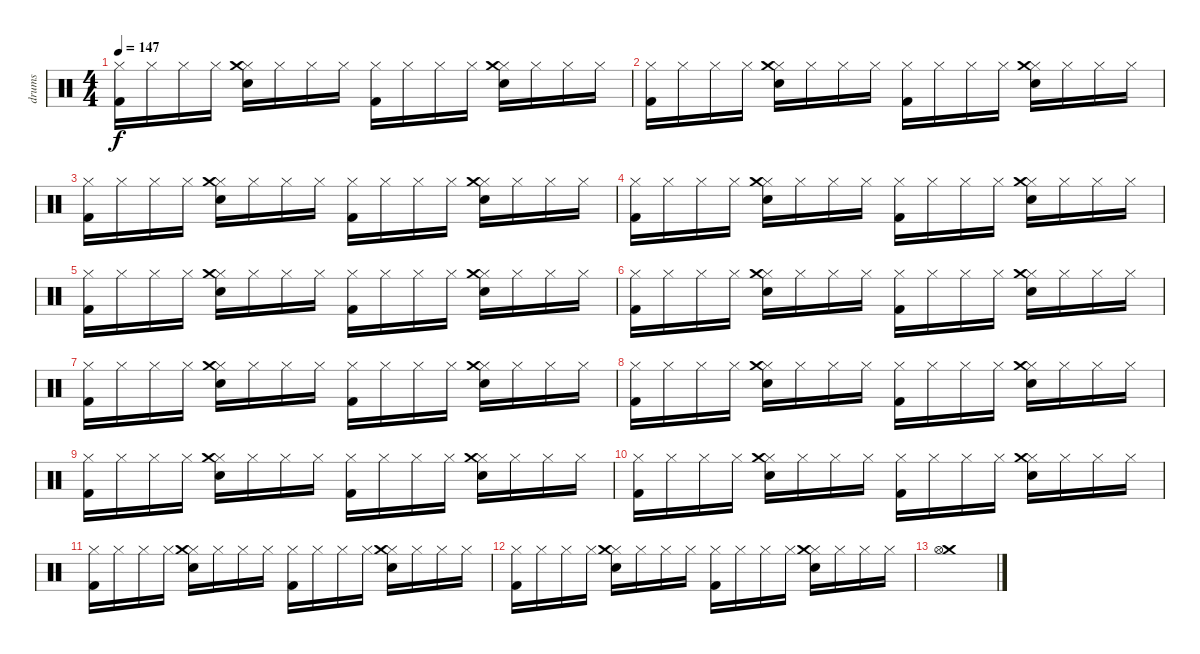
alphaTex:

\track ("drums" "drums") {instrument percussion}
\staff {score}
\articulation defaults
\ts (4 4)
\tempo 147
\clef neutral
\ks c
("Hi-Hat (closed)" "Kick (hit) 2").16{dy f} "Hi-Hat (closed)".16 "Hi-Hat (closed)".16 "Hi-Hat (closed)".16 ("Hi-Hat (closed)" "Snare (hit) 2" "Crash medium (hit)").16 "Hi-Hat (closed)".16 "Hi-Hat (closed)".16 "Hi-Hat (closed)".16 ("Hi-Hat (closed)" "Kick (hit) 2").16 "Hi-Hat (closed)".16 "Hi-Hat (closed)".16 "Hi-Hat (closed)".16 ("Hi-Hat (closed)" "Snare (hit) 2" "Crash medium (hit)").16 "Hi-Hat (closed)".16 "Hi-Hat (closed)".16 "Hi-Hat (closed)".16 |
("Hi-Hat (closed)" "Kick (hit) 2").16 "Hi-Hat (closed)".16 "Hi-Hat (closed)".16 "Hi-Hat (closed)".16 ("Hi-Hat (closed)" "Snare (hit) 2" "Crash medium (hit)").16 "Hi-Hat (closed)".16 "Hi-Hat (closed)".16 "Hi-Hat (closed)".16 ("Hi-Hat (closed)" "Kick (hit) 2").16 "Hi-Hat (closed)".16 "Hi-Hat (closed)".16 "Hi-Hat (closed)".16 ("Hi-Hat (closed)" "Snare (hit) 2" "Crash medium (hit)").16 "Hi-Hat (closed)".16 "Hi-Hat (closed)".16 "Hi-Hat (closed)".16 |
("Hi-Hat (closed)" "Kick (hit) 2").16 "Hi-Hat (closed)".16 "Hi-Hat (closed)".16 "Hi-Hat (closed)".16 ("Hi-Hat (closed)" "Snare (hit) 2" "Crash medium (hit)").16 "Hi-Hat (closed)".16 "Hi-Hat (closed)".16 "Hi-Hat (closed)".16 ("Hi-Hat (closed)" "Kick (hit) 2").16 "Hi-Hat (closed)".16 "Hi-Hat (closed)".16 "Hi-Hat (closed)".16 ("Hi-Hat (closed)" "Snare (hit) 2" "Crash medium (hit)").16 "Hi-Hat (closed)".16 "Hi-Hat (closed)".16 "Hi-Hat (closed)".16 |
("Hi-Hat (closed)" "Kick (hit) 2").16 "Hi-Hat (closed)".16 "Hi-Hat (closed)".16 "Hi-Hat (closed)".16 ("Hi-Hat (closed)" "Snare (hit) 2" "Crash medium (hit)").16 "Hi-Hat (closed)".16 "Hi-Hat (closed)".16 "Hi-Hat (closed)".16 ("Hi-Hat (closed)" "Kick (hit) 2").16 "Hi-Hat (closed)".16 "Hi-Hat (closed)".16 "Hi-Hat (closed)".16 ("Hi-Hat (closed)" "Snare (hit) 2" "Crash medium (hit)").16 "Hi-Hat (closed)".16 "Hi-Hat (closed)".16 "Hi-Hat (closed)".16 |
("Hi-Hat (closed)" "Kick (hit) 2").16 "Hi-Hat (closed)".16 "Hi-Hat (closed)".16 "Hi-Hat (closed)".16 ("Hi-Hat (closed)" "Snare (hit) 2" "Crash medium (hit)").16 "Hi-Hat (closed)".16 "Hi-Hat (closed)".16 "Hi-Hat (closed)".16 ("Hi-Hat (closed)" "Kick (hit) 2").16 "Hi-Hat (closed)".16 "Hi-Hat (closed)".16 "Hi-Hat (closed)".16 ("Hi-Hat (closed)" "Snare (hit) 2" "Crash medium (hit)").16 "Hi-Hat (closed)".16 "Hi-Hat (closed)".16 "Hi-Hat (closed)".16 |
("Hi-Hat (closed)" "Kick (hit) 2").16 "Hi-Hat (closed)".16 "Hi-Hat (closed)".16 "Hi-Hat (closed)".16 ("Hi-Hat (closed)" "Snare (hit) 2" "Crash medium (hit)").16 "Hi-Hat (closed)".16 "Hi-Hat (closed)".16 "Hi-Hat (closed)".16 ("Hi-Hat (closed)" "Kick (hit) 2").16 "Hi-Hat (closed)".16 "Hi-Hat (closed)".16 "Hi-Hat (closed)".16 ("Hi-Hat (closed)" "Snare (hit) 2" "Crash medium (hit)").16 "Hi-Hat (closed)".16 "Hi-Hat (closed)".16 "Hi-Hat (closed)".16 |
("Hi-Hat (closed)" "Kick (hit) 2").16 "Hi-Hat (closed)".16 "Hi-Hat (closed)".16 "Hi-Hat (closed)".16 ("Hi-Hat (closed)" "Snare (hit) 2" "Crash medium (hit)").16 "Hi-Hat (closed)".16 "Hi-Hat (closed)".16 "Hi-Hat (closed)".16 ("Hi-Hat (closed)" "Kick (hit) 2").16 "Hi-Hat (closed)".16 "Hi-Hat (closed)".16 "Hi-Hat (closed)".16 ("Hi-Hat (closed)" "Snare (hit) 2" "Crash medium (hit)").16 "Hi-Hat (closed)".16 "Hi-Hat (closed)".16 "Hi-Hat (closed)".16 |
("Hi-Hat (closed)" "Kick (hit) 2").16 "Hi-Hat (closed)".16 "Hi-Hat (closed)".16 "Hi-Hat (closed)".16 ("Hi-Hat (closed)" "Snare (hit) 2" "Crash medium (hit)").16 "Hi-Hat (closed)".16 "Hi-Hat (closed)".16 "Hi-Hat (closed)".16 ("Hi-Hat (closed)" "Kick (hit) 2").16 "Hi-Hat (closed)".16 "Hi-Hat (closed)".16 "Hi-Hat (closed)".16 ("Hi-Hat (closed)" "Snare (hit) 2" "Crash medium (hit)").16 "Hi-Hat (closed)".16 "Hi-Hat (closed)".16 "Hi-Hat (closed)".16 |
("Hi-Hat (closed)" "Kick (hit) 2").16 "Hi-Hat (closed)".16 "Hi-Hat (closed)".16 "Hi-Hat (closed)".16 ("Hi-Hat (closed)" "Snare (hit) 2" "Crash medium (hit)").16 "Hi-Hat (closed)".16 "Hi-Hat (closed)".16 "Hi-Hat (closed)".16 ("Hi-Hat (closed)" "Kick (hit) 2").16 "Hi-Hat (closed)".16 "Hi-Hat (closed)".16 "Hi-Hat (closed)".16 ("Hi-Hat (closed)" "Snare (hit) 2" "Crash medium (hit)").16 "Hi-Hat (closed)".16 "Hi-Hat (closed)".16 "Hi-Hat (closed)".16 |
("Hi-Hat (closed)" "Kick (hit) 2").16 "Hi-Hat (closed)".16 "Hi-Hat (closed)".16 "Hi-Hat (closed)".16 ("Hi-Hat (closed)" "Snare (hit) 2" "Crash medium (hit)").16 "Hi-Hat (closed)".16 "Hi-Hat (closed)".16 "Hi-Hat (closed)".16 ("Hi-Hat (closed)" "Kick (hit) 2").16 "Hi-Hat (closed)".16 "Hi-Hat (closed)".16 "Hi-Hat (closed)".16 ("Hi-Hat (closed)" "Snare (hit) 2" "Crash medium (hit)").16 "Hi-Hat (closed)".16 "Hi-Hat (closed)".16 "Hi-Hat (closed)".16 |
("Hi-Hat (closed)" "Kick (hit) 2").16 "Hi-Hat (closed)".16 "Hi-Hat (closed)".16 "Hi-Hat (closed)".16 ("Hi-Hat (closed)" "Snare (hit) 2" "Crash medium (hit)").16 "Hi-Hat (closed)".16 "Hi-Hat (closed)".16 "Hi-Hat (closed)".16 ("Hi-Hat (closed)" "Kick (hit) 2").16 "Hi-Hat (closed)".16 "Hi-Hat (closed)".16 "Hi-Hat (closed)".16 ("Hi-Hat (closed)" "Snare (hit) 2" "Crash medium (hit)").16 "Hi-Hat (closed)".16 "Hi-Hat (closed)".16 "Hi-Hat (closed)".16 |
("Hi-Hat (closed)" "Kick (hit) 2").16 "Hi-Hat (closed)".16 "Hi-Hat (closed)".16 "Hi-Hat (closed)".16 ("Hi-Hat (closed)" "Snare (hit) 2" "Crash medium (hit)").16 "Hi-Hat (closed)".16 "Hi-Hat (closed)".16 "Hi-Hat (closed)".16 ("Hi-Hat (closed)" "Kick (hit) 2").16 "Hi-Hat (closed)".16 "Hi-Hat (closed)".16 "Hi-Hat (closed)".16 ("Hi-Hat (closed)" "Snare (hit) 2" "Crash medium (hit)").16 "Hi-Hat (closed)".16 "Hi-Hat (closed)".16 "Hi-Hat (closed)".16 |
("Crash medium (hit)" "Hi-Hat (open)").1
